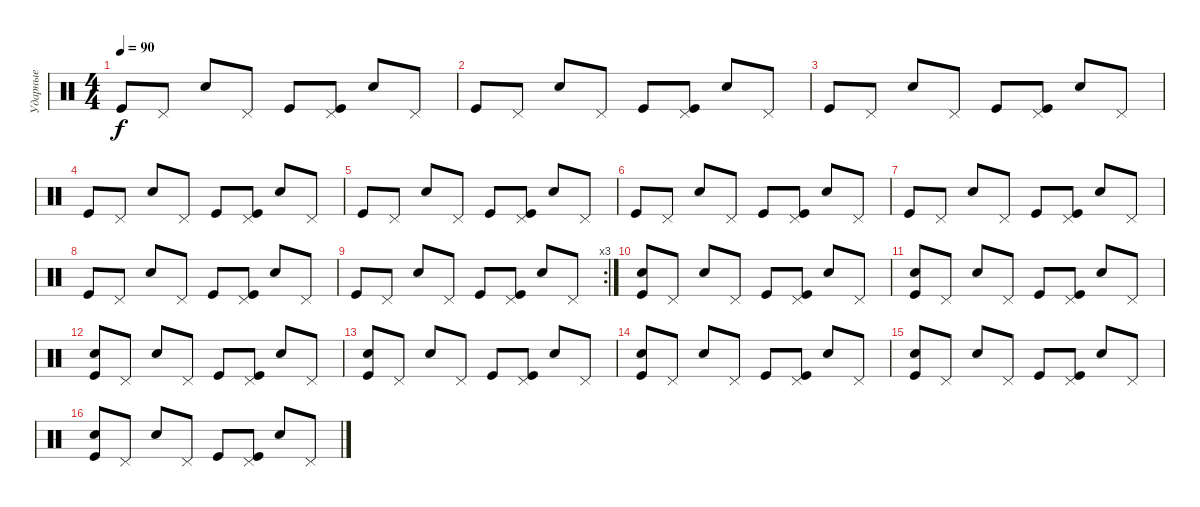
\track ("Ударные" "Ударные") {instrument percussion}
\staff {score}
\articulation defaults
\ts (4 4)
\tempo 90
\clef neutral
\ks c "Kick (hit)".8{dy f} "Pedal Hi-Hat (hit)".8 "Electric Snare (hit)".8 "Pedal Hi-Hat (hit)".8 "Kick (hit)".8
("Kick (hit)" "Pedal Hi-Hat (hit)").8 "Electric Snare (hit)".8 "Pedal Hi-Hat (hit)".8 |
"Kick (hit)".8 "Pedal Hi-Hat (hit)".8 "Electric Snare (hit)".8 "Pedal Hi-Hat (hit)".8 "Kick (hit)".8 ("Kick (hit)" "Pedal Hi-Hat (hit)").8 "Electric Snare (hit)".8 "Pedal Hi-Hat (hit)".8 |
"Kick (hit)".8 "Pedal Hi-Hat (hit)".8 "Electric Snare (hit)".8 "Pedal Hi-Hat (hit)".8 "Kick (hit)".8 ("Kick (hit)" "Pedal Hi-Hat (hit)").8 "Electric Snare (hit)".8 "Pedal Hi-Hat (hit)".8 |
"Kick (hit)".8 "Pedal Hi-Hat (hit)".8 "Electric Snare (hit)".8 "Pedal Hi-Hat (hit)".8 "Kick (hit)".8 ("Kick (hit)" "Pedal Hi-Hat (hit)").8 "Electric Snare (hit)".8 "Pedal Hi-Hat (hit)".8 |
"Kick (hit)".8 "Pedal Hi-Hat (hit)".8 "Electric Snare (hit)".8 "Pedal Hi-Hat (hit)".8 "Kick (hit)".8 ("Kick (hit)" "Pedal Hi-Hat (hit)").8 "Electric Snare (hit)".8 "Pedal Hi-Hat (hit)".8 |
"Kick (hit)".8 "Pedal Hi-Hat (hit)".8 "Electric Snare (hit)".8 "Pedal Hi-Hat (hit)".8 "Kick (hit)".8 ("Kick (hit)" "Pedal Hi-Hat (hit)").8 "Electric Snare (hit)".8 "Pedal Hi-Hat (hit)".8 |
"Kick (hit)".8 "Pedal Hi-Hat (hit)".8 "Electric Snare (hit)".8 "Pedal Hi-Hat (hit)".8 "Kick (hit)".8 ("Kick (hit)" "Pedal Hi-Hat (hit)").8 "Electric Snare (hit)".8 "Pedal Hi-Hat (hit)".8 |
"Kick (hit)".8 "Pedal Hi-Hat (hit)".8 "Electric Snare (hit)".8 "Pedal Hi-Hat (hit)".8 "Kick (hit)".8 ("Kick (hit)" "Pedal Hi-Hat (hit)").8 "Electric Snare (hit)".8 "Pedal Hi-Hat (hit)".8 |
\rc 3 "Kick (hit)".8 "Pedal Hi-Hat (hit)".8 "Electric Snare (hit)".8 "Pedal Hi-Hat (hit)".8 "Kick (hit)".8
("Kick (hit)" "Pedal Hi-Hat (hit)").8 "Electric Snare (hit)".8 "Pedal Hi-Hat (hit)".8 |
("Kick (hit)" "Snare (hit) 2").8 "Pedal Hi-Hat (hit)".8 "Electric Snare (hit)".8 "Pedal Hi-Hat (hit)".8 "Kick (hit)".8 ("Kick (hit)" "Pedal Hi-Hat (hit)").8 "Electric Snare (hit)".8 "Pedal Hi-Hat (hit)".8 |
("Kick (hit)" "Snare (hit) 2").8 "Pedal Hi-Hat (hit)".8 "Electric Snare (hit)".8 "Pedal Hi-Hat (hit)".8 "Kick (hit)".8 ("Kick (hit)" "Pedal Hi-Hat (hit)").8 "Electric Snare (hit)".8 "Pedal Hi-Hat (hit)".8 |
("Kick (hit)" "Snare (hit) 2").8 "Pedal Hi-Hat (hit)".8 "Electric Snare (hit)".8 "Pedal Hi-Hat (hit)".8 "Kick (hit)".8 ("Kick (hit)" "Pedal Hi-Hat (hit)").8 "Electric Snare (hit)".8 "Pedal Hi-Hat (hit)".8 |
("Kick (hit)" "Snare (hit) 2").8 "Pedal Hi-Hat (hit)".8 "Electric Snare (hit)".8 "Pedal Hi-Hat (hit)".8 "Kick (hit)".8 ("Kick (hit)" "Pedal Hi-Hat (hit)").8 "Electric Snare (hit)".8 "Pedal Hi-Hat (hit)".8 |
("Kick (hit)" "Snare (hit) 2").8 "Pedal Hi-Hat (hit)".8 "Electric Snare (hit)".8 "Pedal Hi-Hat (hit)".8 "Kick (hit)".8 ("Kick (hit)" "Pedal Hi-Hat (hit)").8 "Electric Snare (hit)".8 "Pedal Hi-Hat (hit)".8 |
("Kick (hit)" "Snare (hit) 2").8 "Pedal Hi-Hat (hit)".8 "Electric Snare (hit)".8 "Pedal Hi-Hat (hit)".8 "Kick (hit)".8 ("Kick (hit)" "Pedal Hi-Hat (hit)").8 "Electric Snare (hit)".8 "Pedal Hi-Hat (hit)".8 |
("Kick (hit)" "Snare (hit) 2").8 "Pedal Hi-Hat (hit)".8 "Electric Snare (hit)".8 "Pedal Hi-Hat (hit)".8 "Kick (hit)".8 ("Kick (hit)" "Pedal Hi-Hat (hit)").8 "Electric Snare (hit)".8 "Pedal Hi-Hat (hit)".8
